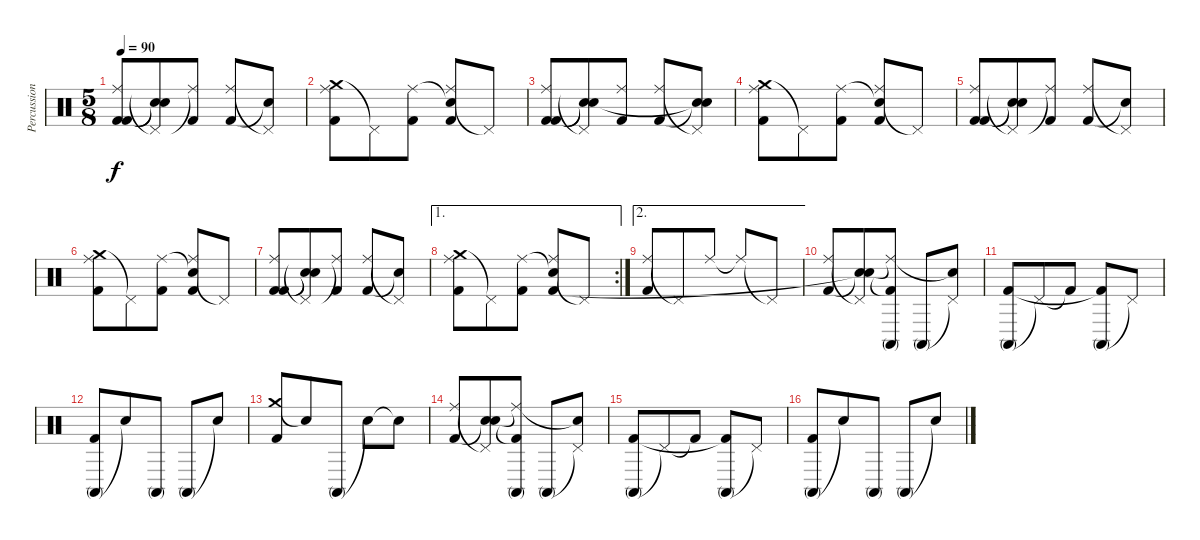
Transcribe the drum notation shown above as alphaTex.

\track ("Percussion" "Percussion") {instrument percussion}
\staff {score}
\articulation defaults
\ts (5 8)
\tempo 90
\clef neutral
\ks c
("Ride (middle)" "Kick (hit) 2" "Kick (hit) 2").8{dy f} ("Pedal Hi-Hat (hit)"{t} "Snare (hit)"{t} "Snare (hit)"{t}).8 ("Ride (middle)"{t} "Kick (hit) 2").8 ("Ride (middle)" "Kick (hit) 2").8 ("Pedal Hi-Hat (hit)"{t} "Snare (hit)"{t}).8 |
("Crash medium (hit)" "Ride (middle)" "Kick (hit) 2").8 "Pedal Hi-Hat (hit)"{t}.8 ("Ride (middle)" "Kick (hit) 2").8 ("Snare (hit)"{t} "Ride (middle)" "Kick (hit) 2").8 "Pedal Hi-Hat (hit)"{t}.8 |
("Ride (middle)" "Kick (hit) 2" "Kick (hit) 2").8 ("Pedal Hi-Hat (hit)"{t} "Snare (hit)"{t} "Snare (hit)"{t}).8 ("Ride (middle)" "Kick (hit) 2").8 ("Ride (middle)" "Kick (hit) 2").8 ("Pedal Hi-Hat (hit)"{t} "Snare (hit)"{t} "Snare (hit)"{t}).8 |
("Crash medium (hit)" "Ride (middle)" "Kick (hit) 2").8 "Pedal Hi-Hat (hit)"{t}.8 ("Ride (middle)" "Kick (hit) 2").8 ("Snare (hit)"{t} "Ride (middle)" "Kick (hit) 2").8 "Pedal Hi-Hat (hit)"{t}.8 |
("Ride (middle)" "Kick (hit) 2" "Kick (hit) 2").8 ("Pedal Hi-Hat (hit)"{t} "Snare (hit)"{t} "Snare (hit)"{t}).8 ("Ride (middle)"{t} "Kick (hit) 2").8 ("Ride (middle)" "Kick (hit) 2").8 ("Pedal Hi-Hat (hit)"{t} "Snare (hit)"{t}).8 |
("Crash medium (hit)" "Ride (middle)" "Kick (hit) 2").8 "Pedal Hi-Hat (hit)"{t}.8 ("Ride (middle)" "Kick (hit) 2").8 ("Snare (hit)"{t} "Ride (middle)" "Kick (hit) 2").8 "Pedal Hi-Hat (hit)"{t}.8 |
("Ride (middle)" "Kick (hit) 2" "Kick (hit) 2").8 ("Pedal Hi-Hat (hit)"{t} "Snare (hit)"{t} "Snare (hit)"{t}).8 ("Ride (middle)"{t} "Kick (hit) 2").8 ("Ride (middle)" "Kick (hit) 2").8 ("Pedal Hi-Hat (hit)"{t} "Snare (hit)"{t}).8 |
\ae 1
\rc 2
("Crash medium (hit)" "Ride (middle)" "Kick (hit) 2").8 "Pedal Hi-Hat (hit)"{t}.8 ("Ride (middle)" "Kick (hit) 2").8 ("Snare (hit)"{t} "Ride (middle)" "Kick (hit) 2").8 "Pedal Hi-Hat (hit)"{t}.8 |
\ae 2
("Ride (middle)" "Kick (hit) 2").8 "Pedal Hi-Hat (hit)"{t}.8 "Ride (middle)".8 "Ride (middle)"{t}.8 "Pedal Hi-Hat (hit)"{t}.8 |
("Ride (middle)" "Kick (hit) 2").8 ("Pedal Hi-Hat (hit)"{t} "Snare (hit)"{t} "Snare (hit)"{t}).8 ("Conga high (mute)" "Ride (middle)"{t} "Kick (hit) 2"{t}).8 "Conga high (mute)".8 ("Pedal Hi-Hat (hit)"{t} "Snare (hit)"{t}).8 |
("Conga high (mute)" "Kick (hit) 2").8 "Pedal Hi-Hat (hit)"{t}.8 "Kick (hit) 2"{t}.8 ("Conga high (mute)" "Kick (hit) 2"{t}).8 "Pedal Hi-Hat (hit)"{t}.8 |
("Conga high (mute)" "Kick (hit) 2").8 "Snare (hit)"{t}.8 "Conga high (mute)".8 "Conga high (mute)".8 "Snare (hit)"{t}.8 |
("Crash medium (hit)" "Kick (hit) 2").8 "Snare (hit)"{t}.8 "Conga high (mute)".8 "Snare (hit)"{t}.8 "Snare (hit)"{t}.8 |
("Ride (middle)" "Kick (hit) 2").8 ("Pedal Hi-Hat (hit)"{t} "Snare (hit)"{t} "Snare (hit)").8 ("Conga high (mute)" "Ride (middle)"{t} "Kick (hit) 2"{t}).8 "Conga high (mute)".8 ("Pedal Hi-Hat (hit)"{t} "Snare (hit)"{t}).8 |
("Conga high (mute)" "Kick (hit) 2").8 "Pedal Hi-Hat (hit)"{t}.8 "Kick (hit) 2"{t}.8 ("Conga high (mute)" "Kick (hit) 2"{t}).8 "Pedal Hi-Hat (hit)"{t}.8 |
("Conga high (mute)" "Kick (hit) 2").8 "Snare (hit)"{t}.8 "Conga high (mute)".8 "Conga high (mute)".8 "Snare (hit)"{t}.8
